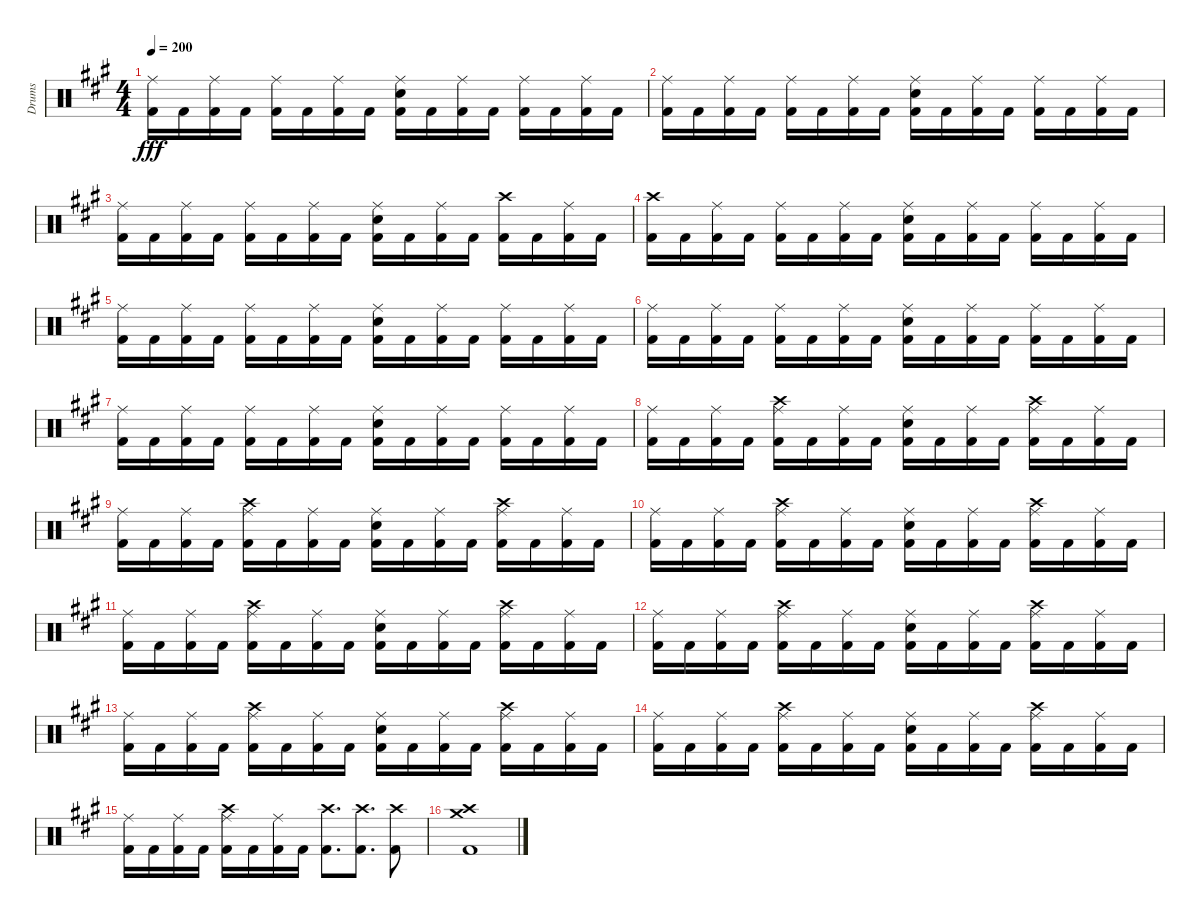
\track ("Drums" "Drums") {instrument percussion}
\staff {score}
\articulation defaults
\ts (4 4)
\tempo 200
\clef neutral
\ks f#minor
("Ride (middle)" "Kick (hit) 2").16{dy fff} "Kick (hit) 2".16 ("Ride (middle)" "Kick (hit) 2").16 "Kick (hit) 2".16 ("Ride (middle)" "Kick (hit) 2").16 "Kick (hit) 2".16 ("Ride (middle)" "Kick (hit) 2").16 "Kick (hit) 2".16 ("Ride (middle)" "Electric Snare (hit)" "Kick (hit) 2").16 "Kick (hit) 2".16 ("Ride (middle)" "Kick (hit) 2").16 "Kick (hit) 2".16 ("Ride (middle)" "Kick (hit) 2").16 "Kick (hit) 2".16 ("Ride (middle)" "Kick (hit) 2").16 "Kick (hit) 2".16 |
("Ride (middle)" "Kick (hit) 2").16 "Kick (hit) 2".16 ("Ride (middle)" "Kick (hit) 2").16 "Kick (hit) 2".16 ("Ride (middle)" "Kick (hit) 2").16 "Kick (hit) 2".16 ("Ride (middle)" "Kick (hit) 2").16 "Kick (hit) 2".16 ("Ride (middle)" "Electric Snare (hit)" "Kick (hit) 2").16 "Kick (hit) 2".16 ("Ride (middle)" "Kick (hit) 2").16 "Kick (hit) 2".16 ("Ride (middle)" "Kick (hit) 2").16 "Kick (hit) 2".16 ("Ride (middle)" "Kick (hit) 2").16 "Kick (hit) 2".16 |
("Ride (middle)" "Kick (hit) 2").16 "Kick (hit) 2".16 ("Ride (middle)" "Kick (hit) 2").16 "Kick (hit) 2".16 ("Ride (middle)" "Kick (hit) 2").16 "Kick (hit) 2".16 ("Ride (middle)" "Kick (hit) 2").16 "Kick (hit) 2".16 ("Ride (middle)" "Electric Snare (hit)" "Kick (hit) 2").16 "Kick (hit) 2".16 ("Ride (middle)" "Kick (hit) 2").16 "Kick (hit) 2".16 ("Crash high (hit)" "Kick (hit) 2").16 "Kick (hit) 2".16 ("Ride (middle)" "Kick (hit) 2").16 "Kick (hit) 2".16 |
("Crash high (hit)" "Kick (hit) 2").16 "Kick (hit) 2".16 ("Ride (middle)" "Kick (hit) 2").16 "Kick (hit) 2".16 ("Ride (middle)" "Kick (hit) 2").16 "Kick (hit) 2".16 ("Ride (middle)" "Kick (hit) 2").16 "Kick (hit) 2".16 ("Ride (middle)" "Electric Snare (hit)" "Kick (hit) 2").16 "Kick (hit) 2".16 ("Ride (middle)" "Kick (hit) 2").16 "Kick (hit) 2".16 ("Ride (middle)" "Kick (hit) 2").16 "Kick (hit) 2".16 ("Ride (middle)" "Kick (hit) 2").16 "Kick (hit) 2".16 |
("Ride (middle)" "Kick (hit) 2").16 "Kick (hit) 2".16 ("Ride (middle)" "Kick (hit) 2").16 "Kick (hit) 2".16 ("Ride (middle)" "Kick (hit) 2").16 "Kick (hit) 2".16 ("Ride (middle)" "Kick (hit) 2").16 "Kick (hit) 2".16 ("Ride (middle)" "Electric Snare (hit)" "Kick (hit) 2").16 "Kick (hit) 2".16 ("Ride (middle)" "Kick (hit) 2").16 "Kick (hit) 2".16 ("Ride (middle)" "Kick (hit) 2").16 "Kick (hit) 2".16 ("Ride (middle)" "Kick (hit) 2").16 "Kick (hit) 2".16 |
("Ride (middle)" "Kick (hit) 2").16 "Kick (hit) 2".16 ("Ride (middle)" "Kick (hit) 2").16 "Kick (hit) 2".16 ("Ride (middle)" "Kick (hit) 2").16 "Kick (hit) 2".16 ("Ride (middle)" "Kick (hit) 2").16 "Kick (hit) 2".16 ("Ride (middle)" "Electric Snare (hit)" "Kick (hit) 2").16 "Kick (hit) 2".16 ("Ride (middle)" "Kick (hit) 2").16 "Kick (hit) 2".16 ("Ride (middle)" "Kick (hit) 2").16 "Kick (hit) 2".16 ("Ride (middle)" "Kick (hit) 2").16 "Kick (hit) 2".16 |
("Ride (middle)" "Kick (hit) 2").16 "Kick (hit) 2".16 ("Ride (middle)" "Kick (hit) 2").16 "Kick (hit) 2".16 ("Ride (middle)" "Kick (hit) 2").16 "Kick (hit) 2".16 ("Ride (middle)" "Kick (hit) 2").16 "Kick (hit) 2".16 ("Ride (middle)" "Electric Snare (hit)" "Kick (hit) 2").16 "Kick (hit) 2".16 ("Ride (middle)" "Kick (hit) 2").16 "Kick (hit) 2".16 ("Ride (middle)" "Kick (hit) 2").16 "Kick (hit) 2".16 ("Ride (middle)" "Kick (hit) 2").16 "Kick (hit) 2".16 |
("Ride (middle)" "Kick (hit) 2").16 "Kick (hit) 2".16 ("Ride (middle)" "Kick (hit) 2").16 "Kick (hit) 2".16 ("Ride (middle)" "Crash high (hit)" "Kick (hit) 2").16 "Kick (hit) 2".16 ("Ride (middle)" "Kick (hit) 2").16 "Kick (hit) 2".16 ("Ride (middle)" "Electric Snare (hit)" "Kick (hit) 2").16 "Kick (hit) 2".16 ("Ride (middle)" "Kick (hit) 2").16 "Kick (hit) 2".16 ("Ride (middle)" "Crash high (hit)" "Kick (hit) 2").16 "Kick (hit) 2".16 ("Ride (middle)" "Kick (hit) 2").16 "Kick (hit) 2".16 |
("Ride (middle)" "Kick (hit) 2").16 "Kick (hit) 2".16 ("Ride (middle)" "Kick (hit) 2").16 "Kick (hit) 2".16 ("Ride (middle)" "Crash high (hit)" "Kick (hit) 2").16 "Kick (hit) 2".16 ("Ride (middle)" "Kick (hit) 2").16 "Kick (hit) 2".16 ("Ride (middle)" "Electric Snare (hit)" "Kick (hit) 2").16 "Kick (hit) 2".16 ("Ride (middle)" "Kick (hit) 2").16 "Kick (hit) 2".16 ("Ride (middle)" "Crash high (hit)" "Kick (hit) 2").16 "Kick (hit) 2".16 ("Ride (middle)" "Kick (hit) 2").16 "Kick (hit) 2".16 |
("Ride (middle)" "Kick (hit) 2").16 "Kick (hit) 2".16 ("Ride (middle)" "Kick (hit) 2").16 "Kick (hit) 2".16 ("Ride (middle)" "Crash high (hit)" "Kick (hit) 2").16 "Kick (hit) 2".16 ("Ride (middle)" "Kick (hit) 2").16 "Kick (hit) 2".16 ("Ride (middle)" "Electric Snare (hit)" "Kick (hit) 2").16 "Kick (hit) 2".16 ("Ride (middle)" "Kick (hit) 2").16 "Kick (hit) 2".16 ("Ride (middle)" "Crash high (hit)" "Kick (hit) 2").16 "Kick (hit) 2".16 ("Ride (middle)" "Kick (hit) 2").16 "Kick (hit) 2".16 |
("Ride (middle)" "Kick (hit) 2").16 "Kick (hit) 2".16 ("Ride (middle)" "Kick (hit) 2").16 "Kick (hit) 2".16 ("Ride (middle)" "Crash high (hit)" "Kick (hit) 2").16 "Kick (hit) 2".16 ("Ride (middle)" "Kick (hit) 2").16 "Kick (hit) 2".16 ("Ride (middle)" "Electric Snare (hit)" "Kick (hit) 2").16 "Kick (hit) 2".16 ("Ride (middle)" "Kick (hit) 2").16 "Kick (hit) 2".16 ("Ride (middle)" "Crash high (hit)" "Kick (hit) 2").16 "Kick (hit) 2".16 ("Ride (middle)" "Kick (hit) 2").16 "Kick (hit) 2".16 |
("Ride (middle)" "Kick (hit) 2").16 "Kick (hit) 2".16 ("Ride (middle)" "Kick (hit) 2").16 "Kick (hit) 2".16 ("Ride (middle)" "Crash high (hit)" "Kick (hit) 2").16 "Kick (hit) 2".16 ("Ride (middle)" "Kick (hit) 2").16 "Kick (hit) 2".16 ("Ride (middle)" "Electric Snare (hit)" "Kick (hit) 2").16 "Kick (hit) 2".16 ("Ride (middle)" "Kick (hit) 2").16 "Kick (hit) 2".16 ("Ride (middle)" "Crash high (hit)" "Kick (hit) 2").16 "Kick (hit) 2".16 ("Ride (middle)" "Kick (hit) 2").16 "Kick (hit) 2".16 |
("Ride (middle)" "Kick (hit) 2").16 "Kick (hit) 2".16 ("Ride (middle)" "Kick (hit) 2").16 "Kick (hit) 2".16 ("Ride (middle)" "Crash high (hit)" "Kick (hit) 2").16 "Kick (hit) 2".16 ("Ride (middle)" "Kick (hit) 2").16 "Kick (hit) 2".16 ("Ride (middle)" "Electric Snare (hit)" "Kick (hit) 2").16 "Kick (hit) 2".16 ("Ride (middle)" "Kick (hit) 2").16 "Kick (hit) 2".16 ("Ride (middle)" "Crash high (hit)" "Kick (hit) 2").16 "Kick (hit) 2".16 ("Ride (middle)" "Kick (hit) 2").16 "Kick (hit) 2".16 |
("Ride (middle)" "Kick (hit) 2").16 "Kick (hit) 2".16 ("Ride (middle)" "Kick (hit) 2").16 "Kick (hit) 2".16 ("Ride (middle)" "Crash high (hit)" "Kick (hit) 2").16 "Kick (hit) 2".16 ("Ride (middle)" "Kick (hit) 2").16 "Kick (hit) 2".16 ("Ride (middle)" "Electric Snare (hit)" "Kick (hit) 2").16 "Kick (hit) 2".16 ("Ride (middle)" "Kick (hit) 2").16 "Kick (hit) 2".16 ("Ride (middle)" "Crash high (hit)" "Kick (hit) 2").16 "Kick (hit) 2".16 ("Ride (middle)" "Kick (hit) 2").16 "Kick (hit) 2".16 |
("Ride (middle)" "Kick (hit) 2").16 "Kick (hit) 2".16 ("Ride (middle)" "Kick (hit) 2").16 "Kick (hit) 2".16 ("Ride (middle)" "Crash high (hit)" "Kick (hit) 2").16 "Kick (hit) 2".16 ("Ride (middle)" "Kick (hit) 2").16 "Kick (hit) 2".16 ("Crash high (hit)" "Kick (hit) 2").8{d} ("Crash high (hit)" "Kick (hit) 2").8{d} ("Crash high (hit)" "Kick (hit) 2").8 |
("Crash high (hit)" "Crash medium (hit)" "Kick (hit) 2").1
